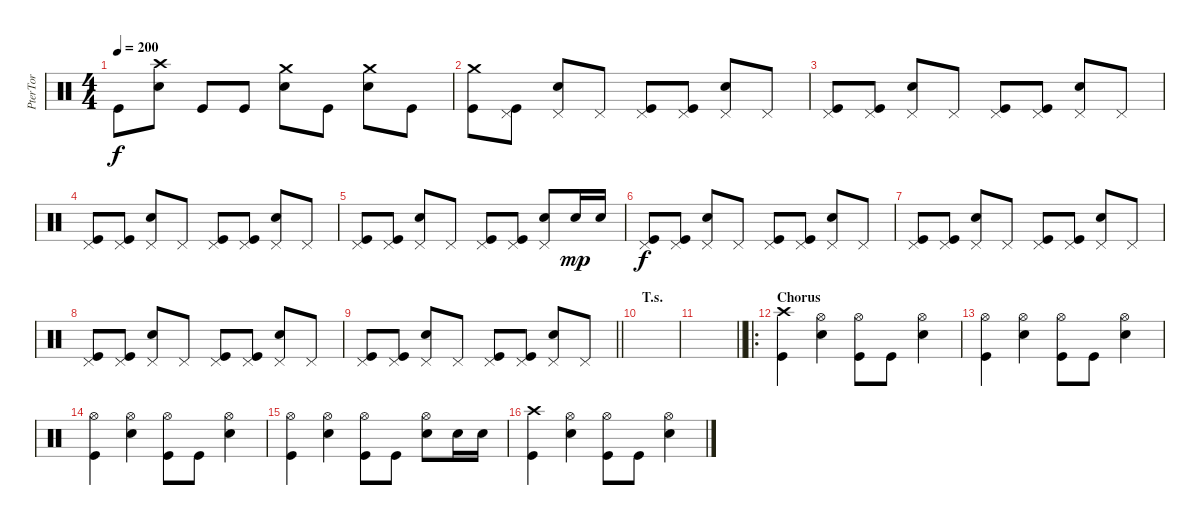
\track ("PterTor" "PterTor") {instrument percussion}
\staff {score}
\articulation defaults
\ts (4 4)
\tempo 200
\clef neutral
\ks c "Kick (hit)".8{dy f}
("Crash high (hit)" "Snare (hit) 2").8 "Kick (hit)".8 "Kick (hit)".8 ("Crash medium (hit)" "Snare (hit) 2").8 "Kick (hit)".8 ("Crash medium (hit)" "Snare (hit) 2").8 "Kick (hit)".8 |
("Crash medium (hit)" "Kick (hit)").8 ("Pedal Hi-Hat (hit)" "Kick (hit)").8 ("Pedal Hi-Hat (hit)" "Snare (hit) 2").8 "Pedal Hi-Hat (hit)".8 ("Pedal Hi-Hat (hit)" "Kick (hit)").8 ("Pedal Hi-Hat (hit)" "Kick (hit)").8 ("Pedal Hi-Hat (hit)" "Snare (hit) 2").8 "Pedal Hi-Hat (hit)".8 |
("Pedal Hi-Hat (hit)" "Kick (hit)").8 ("Pedal Hi-Hat (hit)" "Kick (hit)").8 ("Pedal Hi-Hat (hit)" "Snare (hit) 2").8 "Pedal Hi-Hat (hit)".8 ("Pedal Hi-Hat (hit)" "Kick (hit)").8 ("Pedal Hi-Hat (hit)" "Kick (hit)").8 ("Pedal Hi-Hat (hit)" "Snare (hit) 2").8 "Pedal Hi-Hat (hit)".8 |
("Pedal Hi-Hat (hit)" "Kick (hit)").8 ("Pedal Hi-Hat (hit)" "Kick (hit)").8 ("Pedal Hi-Hat (hit)" "Snare (hit) 2").8 "Pedal Hi-Hat (hit)".8 ("Pedal Hi-Hat (hit)" "Kick (hit)").8 ("Pedal Hi-Hat (hit)" "Kick (hit)").8 ("Pedal Hi-Hat (hit)" "Snare (hit) 2").8 "Pedal Hi-Hat (hit)".8 |
("Pedal Hi-Hat (hit)" "Kick (hit)").8 ("Pedal Hi-Hat (hit)" "Kick (hit)").8 ("Pedal Hi-Hat (hit)" "Snare (hit) 2").8 "Pedal Hi-Hat (hit)".8 ("Pedal Hi-Hat (hit)" "Kick (hit)").8 ("Pedal Hi-Hat (hit)" "Kick (hit)").8 ("Pedal Hi-Hat (hit)" "Snare (hit) 2").8 "Snare (hit) 2".16{dy mp} "Snare (hit) 2".16 |
("Pedal Hi-Hat (hit)" "Kick (hit)").8{dy f} ("Pedal Hi-Hat (hit)" "Kick (hit)").8 ("Pedal Hi-Hat (hit)" "Snare (hit) 2").8 "Pedal Hi-Hat (hit)".8 ("Pedal Hi-Hat (hit)" "Kick (hit)").8 ("Pedal Hi-Hat (hit)" "Kick (hit)").8 ("Pedal Hi-Hat (hit)" "Snare (hit) 2").8 "Pedal Hi-Hat (hit)".8 |
("Pedal Hi-Hat (hit)" "Kick (hit)").8 ("Pedal Hi-Hat (hit)" "Kick (hit)").8 ("Pedal Hi-Hat (hit)" "Snare (hit) 2").8 "Pedal Hi-Hat (hit)".8 ("Pedal Hi-Hat (hit)" "Kick (hit)").8 ("Pedal Hi-Hat (hit)" "Kick (hit)").8 ("Pedal Hi-Hat (hit)" "Snare (hit) 2").8 "Pedal Hi-Hat (hit)".8 |
("Pedal Hi-Hat (hit)" "Kick (hit)").8 ("Pedal Hi-Hat (hit)" "Kick (hit)").8 ("Pedal Hi-Hat (hit)" "Snare (hit) 2").8 "Pedal Hi-Hat (hit)".8 ("Pedal Hi-Hat (hit)" "Kick (hit)").8 ("Pedal Hi-Hat (hit)" "Kick (hit)").8 ("Pedal Hi-Hat (hit)" "Snare (hit) 2").8 "Pedal Hi-Hat (hit)".8 |
\barLineRight lightlight
("Pedal Hi-Hat (hit)" "Kick (hit)").8 ("Pedal Hi-Hat (hit)" "Kick (hit)").8 ("Pedal Hi-Hat (hit)" "Snare (hit) 2").8 "Pedal Hi-Hat (hit)".8 ("Pedal Hi-Hat (hit)" "Kick (hit)").8 ("Pedal Hi-Hat (hit)" "Kick (hit)").8 ("Pedal Hi-Hat (hit)" "Snare (hit) 2").8 "Pedal Hi-Hat (hit)".8 |
\section ("" "T.s.")
|
\barLineRight lightlight
|
\ro
\section ("" "Chorus")
("Crash high (hit)" "Kick (hit)").4 ("Hi-Hat (open)" "Snare (hit) 2").4 ("Hi-Hat (open)" "Kick (hit)").8 "Kick (hit)".8 ("Hi-Hat (open)" "Snare (hit) 2").4 |
("Hi-Hat (open)" "Kick (hit)").4 ("Hi-Hat (open)" "Snare (hit) 2").4 ("Hi-Hat (open)" "Kick (hit)").8 "Kick (hit)".8 ("Hi-Hat (open)" "Snare (hit) 2").4 |
("Hi-Hat (open)" "Kick (hit)").4 ("Hi-Hat (open)" "Snare (hit) 2").4 ("Hi-Hat (open)" "Kick (hit)").8 "Kick (hit)".8 ("Hi-Hat (open)" "Snare (hit) 2").4 |
("Hi-Hat (open)" "Kick (hit)").4 ("Hi-Hat (open)" "Snare (hit) 2").4 ("Hi-Hat (open)" "Kick (hit)").8 "Kick (hit)".8 ("Hi-Hat (open)" "Snare (hit) 2").8 "Snare (hit) 2".16 "Snare (hit) 2".16 |
("Crash high (hit)" "Kick (hit)").4 ("Hi-Hat (open)" "Snare (hit) 2").4 ("Hi-Hat (open)" "Kick (hit)").8 "Kick (hit)".8 ("Hi-Hat (open)" "Snare (hit) 2").4
